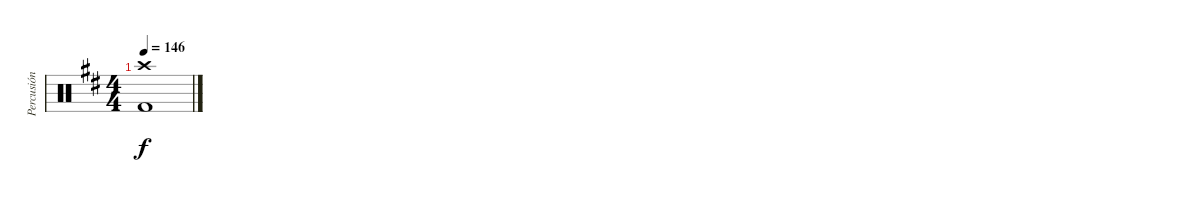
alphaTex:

\track ("Percusión" "Percusión") {instrument percussion}
\staff {score}
\articulation defaults
\ts (4 4)
\tempo 146
\clef neutral
\ks d
("Crash high (hit)" "Kick (hit) 2").1{dy f}
